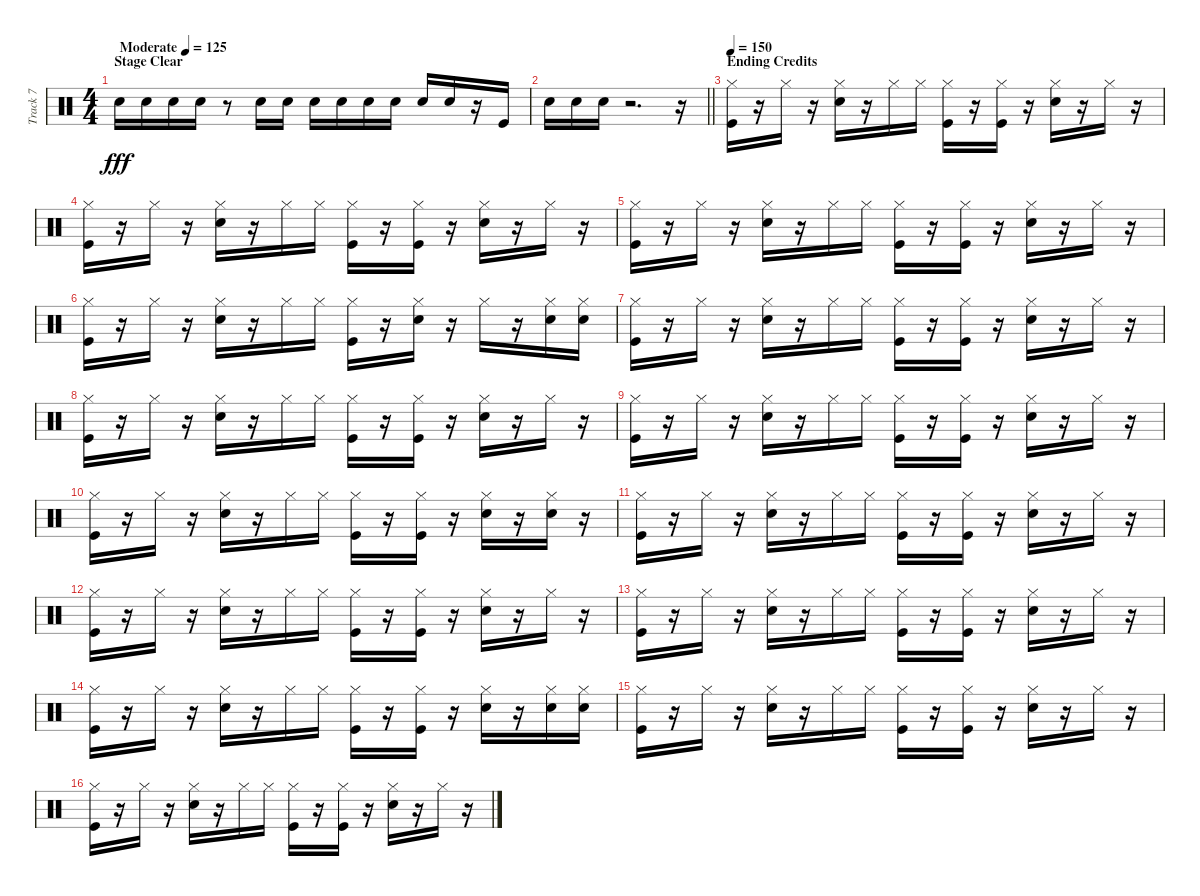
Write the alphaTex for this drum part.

\track ("Track 7" "Track 7") {instrument percussion}
\staff {score}
\articulation defaults
\ts (4 4)
\section ("" "Stage Clear")
\tempo (125 "Moderate")
\clef neutral
\ks c "Snare (hit) 2".16{dy fff} "Snare (hit) 2".16 "Snare (hit) 2".16 "Snare (hit) 2".16
r.8 "Snare (hit) 2".16 "Snare (hit) 2".16 "Snare (hit) 2".16 "Snare (hit) 2".16 "Snare (hit) 2".16 "Snare (hit) 2".16 "Snare (hit) 2".16 "Snare (hit) 2".16 r.16 "Kick (hit)".16 |
\barLineRight lightlight "Snare (hit) 2".16 "Snare (hit) 2".16 "Snare (hit) 2".16
r.2{d} r.16 |
\section ("" "Ending Credits")
\tempo 150
("Kick (hit)" "Hi-Hat (closed)").16 r.16 "Hi-Hat (closed)".16 r.16 ("Snare (hit) 2" "Hi-Hat (closed)").16 r.16 "Hi-Hat (closed)".16 "Hi-Hat (closed)".16 ("Kick (hit)" "Hi-Hat (closed)").16 r.16 ("Kick (hit)" "Hi-Hat (closed)").16 r.16 ("Snare (hit) 2" "Hi-Hat (closed)").16 r.16 "Hi-Hat (closed)".16 r.16 |
("Kick (hit)" "Hi-Hat (closed)").16 r.16 "Hi-Hat (closed)".16 r.16 ("Snare (hit) 2" "Hi-Hat (closed)").16 r.16 "Hi-Hat (closed)".16 "Hi-Hat (closed)".16 ("Kick (hit)" "Hi-Hat (closed)").16 r.16 ("Kick (hit)" "Hi-Hat (closed)").16 r.16 ("Snare (hit) 2" "Hi-Hat (closed)").16 r.16 "Hi-Hat (closed)".16 r.16 |
("Kick (hit)" "Hi-Hat (closed)").16 r.16 "Hi-Hat (closed)".16 r.16 ("Snare (hit) 2" "Hi-Hat (closed)").16 r.16 "Hi-Hat (closed)".16 "Hi-Hat (closed)".16 ("Kick (hit)" "Hi-Hat (closed)").16 r.16 ("Kick (hit)" "Hi-Hat (closed)").16 r.16 ("Snare (hit) 2" "Hi-Hat (closed)").16 r.16 "Hi-Hat (closed)".16 r.16 |
("Kick (hit)" "Hi-Hat (closed)").16 r.16 "Hi-Hat (closed)".16 r.16 ("Snare (hit) 2" "Hi-Hat (closed)").16 r.16 "Hi-Hat (closed)".16 "Hi-Hat (closed)".16 ("Kick (hit)" "Hi-Hat (closed)").16 r.16 ("Snare (hit) 2" "Hi-Hat (closed)").16 r.16 "Hi-Hat (closed)".16 r.16 ("Snare (hit) 2" "Hi-Hat (closed)").16 ("Snare (hit) 2" "Hi-Hat (closed)").16 |
("Kick (hit)" "Hi-Hat (closed)").16 r.16 "Hi-Hat (closed)".16 r.16 ("Snare (hit) 2" "Hi-Hat (closed)").16 r.16 "Hi-Hat (closed)".16 "Hi-Hat (closed)".16 ("Kick (hit)" "Hi-Hat (closed)").16 r.16 ("Kick (hit)" "Hi-Hat (closed)").16 r.16 ("Snare (hit) 2" "Hi-Hat (closed)").16 r.16 "Hi-Hat (closed)".16 r.16 |
("Kick (hit)" "Hi-Hat (closed)").16 r.16 "Hi-Hat (closed)".16 r.16 ("Snare (hit) 2" "Hi-Hat (closed)").16 r.16 "Hi-Hat (closed)".16 "Hi-Hat (closed)".16 ("Kick (hit)" "Hi-Hat (closed)").16 r.16 ("Kick (hit)" "Hi-Hat (closed)").16 r.16 ("Snare (hit) 2" "Hi-Hat (closed)").16 r.16 "Hi-Hat (closed)".16 r.16 |
("Kick (hit)" "Hi-Hat (closed)").16 r.16 "Hi-Hat (closed)".16 r.16 ("Snare (hit) 2" "Hi-Hat (closed)").16 r.16 "Hi-Hat (closed)".16 "Hi-Hat (closed)".16 ("Kick (hit)" "Hi-Hat (closed)").16 r.16 ("Kick (hit)" "Hi-Hat (closed)").16 r.16 ("Snare (hit) 2" "Hi-Hat (closed)").16 r.16 "Hi-Hat (closed)".16 r.16 |
("Kick (hit)" "Hi-Hat (closed)").16 r.16 "Hi-Hat (closed)".16 r.16 ("Snare (hit) 2" "Hi-Hat (closed)").16 r.16 "Hi-Hat (closed)".16 "Hi-Hat (closed)".16 ("Kick (hit)" "Hi-Hat (closed)").16 r.16 ("Kick (hit)" "Hi-Hat (closed)").16 r.16 ("Snare (hit) 2" "Hi-Hat (closed)").16 r.16 ("Snare (hit) 2" "Hi-Hat (closed)").16 r.16 |
("Kick (hit)" "Hi-Hat (closed)").16 r.16 "Hi-Hat (closed)".16 r.16 ("Snare (hit) 2" "Hi-Hat (closed)").16 r.16 "Hi-Hat (closed)".16 "Hi-Hat (closed)".16 ("Kick (hit)" "Hi-Hat (closed)").16 r.16 ("Kick (hit)" "Hi-Hat (closed)").16 r.16 ("Snare (hit) 2" "Hi-Hat (closed)").16 r.16 "Hi-Hat (closed)".16 r.16 |
("Kick (hit)" "Hi-Hat (closed)").16 r.16 "Hi-Hat (closed)".16 r.16 ("Snare (hit) 2" "Hi-Hat (closed)").16 r.16 "Hi-Hat (closed)".16 "Hi-Hat (closed)".16 ("Kick (hit)" "Hi-Hat (closed)").16 r.16 ("Kick (hit)" "Hi-Hat (closed)").16 r.16 ("Snare (hit) 2" "Hi-Hat (closed)").16 r.16 "Hi-Hat (closed)".16 r.16 |
("Kick (hit)" "Hi-Hat (closed)").16 r.16 "Hi-Hat (closed)".16 r.16 ("Snare (hit) 2" "Hi-Hat (closed)").16 r.16 "Hi-Hat (closed)".16 "Hi-Hat (closed)".16 ("Kick (hit)" "Hi-Hat (closed)").16 r.16 ("Kick (hit)" "Hi-Hat (closed)").16 r.16 ("Snare (hit) 2" "Hi-Hat (closed)").16 r.16 "Hi-Hat (closed)".16 r.16 |
("Kick (hit)" "Hi-Hat (closed)").16 r.16 "Hi-Hat (closed)".16 r.16 ("Snare (hit) 2" "Hi-Hat (closed)").16 r.16 "Hi-Hat (closed)".16 "Hi-Hat (closed)".16 ("Kick (hit)" "Hi-Hat (closed)").16 r.16 ("Kick (hit)" "Hi-Hat (closed)").16 r.16 ("Snare (hit) 2" "Hi-Hat (closed)").16 r.16 ("Snare (hit) 2" "Hi-Hat (closed)").16 ("Snare (hit) 2" "Hi-Hat (closed)").16 |
("Kick (hit)" "Hi-Hat (closed)").16 r.16 "Hi-Hat (closed)".16 r.16 ("Snare (hit) 2" "Hi-Hat (closed)").16 r.16 "Hi-Hat (closed)".16 "Hi-Hat (closed)".16 ("Kick (hit)" "Hi-Hat (closed)").16 r.16 ("Kick (hit)" "Hi-Hat (closed)").16 r.16 ("Snare (hit) 2" "Hi-Hat (closed)").16 r.16 "Hi-Hat (closed)".16 r.16 |
("Kick (hit)" "Hi-Hat (closed)").16 r.16 "Hi-Hat (closed)".16 r.16 ("Snare (hit) 2" "Hi-Hat (closed)").16 r.16 "Hi-Hat (closed)".16 "Hi-Hat (closed)".16 ("Kick (hit)" "Hi-Hat (closed)").16 r.16 ("Kick (hit)" "Hi-Hat (closed)").16 r.16 ("Snare (hit) 2" "Hi-Hat (closed)").16 r.16 "Hi-Hat (closed)".16 r.16
